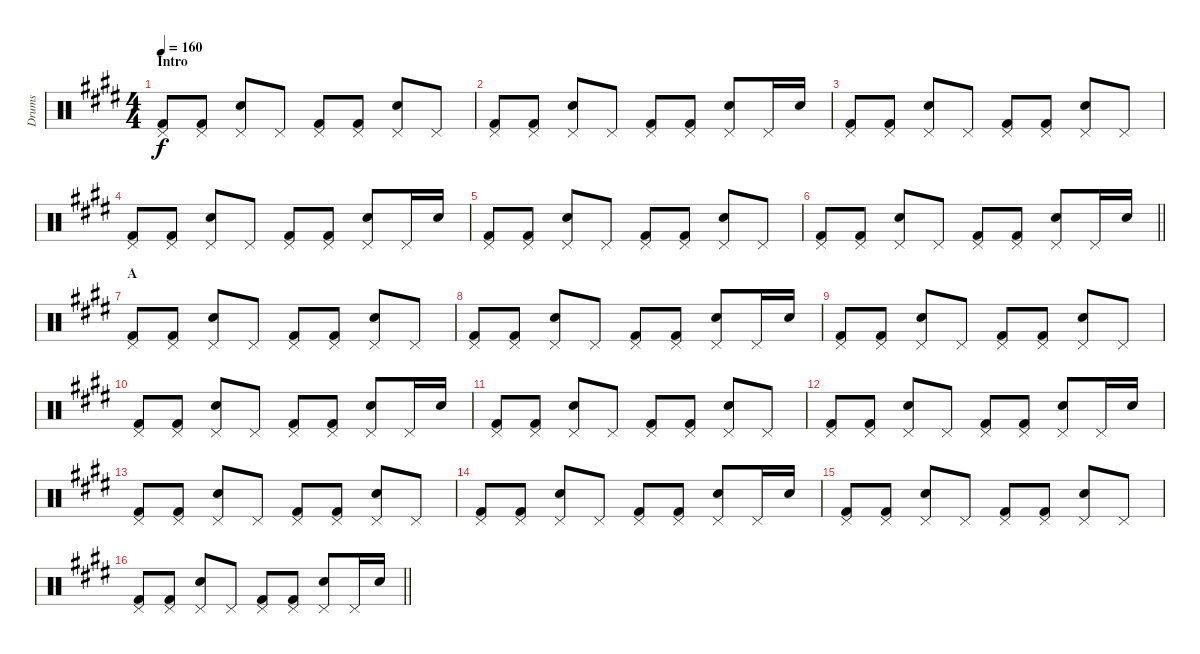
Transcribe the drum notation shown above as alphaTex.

\track ("Drums" "Drums") {instrument percussion}
\staff {score}
\articulation defaults
\ts (4 4)
\section ("" "Intro")
\tempo 160
\clef neutral
\ks e
("Pedal Hi-Hat (hit)" "Kick (hit) 2").8{dy f} ("Pedal Hi-Hat (hit)" "Kick (hit) 2").8 ("Pedal Hi-Hat (hit)" "Snare (hit) 2").8 "Pedal Hi-Hat (hit)".8 ("Pedal Hi-Hat (hit)" "Kick (hit) 2").8 ("Pedal Hi-Hat (hit)" "Kick (hit) 2").8 ("Pedal Hi-Hat (hit)" "Snare (hit) 2").8 "Pedal Hi-Hat (hit)".8 |
("Pedal Hi-Hat (hit)" "Kick (hit) 2").8 ("Pedal Hi-Hat (hit)" "Kick (hit) 2").8 ("Pedal Hi-Hat (hit)" "Snare (hit) 2").8 "Pedal Hi-Hat (hit)".8 ("Pedal Hi-Hat (hit)" "Kick (hit) 2").8 ("Pedal Hi-Hat (hit)" "Kick (hit) 2").8 ("Pedal Hi-Hat (hit)" "Snare (hit) 2").8 "Pedal Hi-Hat (hit)".16 "Snare (hit) 2".16 |
("Pedal Hi-Hat (hit)" "Kick (hit) 2").8 ("Pedal Hi-Hat (hit)" "Kick (hit) 2").8 ("Pedal Hi-Hat (hit)" "Snare (hit) 2").8 "Pedal Hi-Hat (hit)".8 ("Pedal Hi-Hat (hit)" "Kick (hit) 2").8 ("Pedal Hi-Hat (hit)" "Kick (hit) 2").8 ("Pedal Hi-Hat (hit)" "Snare (hit) 2").8 "Pedal Hi-Hat (hit)".8 |
("Pedal Hi-Hat (hit)" "Kick (hit) 2").8 ("Pedal Hi-Hat (hit)" "Kick (hit) 2").8 ("Pedal Hi-Hat (hit)" "Snare (hit) 2").8 "Pedal Hi-Hat (hit)".8 ("Pedal Hi-Hat (hit)" "Kick (hit) 2").8 ("Pedal Hi-Hat (hit)" "Kick (hit) 2").8 ("Pedal Hi-Hat (hit)" "Snare (hit) 2").8 "Pedal Hi-Hat (hit)".16 "Snare (hit) 2".16 |
("Pedal Hi-Hat (hit)" "Kick (hit) 2").8 ("Pedal Hi-Hat (hit)" "Kick (hit) 2").8 ("Pedal Hi-Hat (hit)" "Snare (hit) 2").8 "Pedal Hi-Hat (hit)".8 ("Pedal Hi-Hat (hit)" "Kick (hit) 2").8 ("Pedal Hi-Hat (hit)" "Kick (hit) 2").8 ("Pedal Hi-Hat (hit)" "Snare (hit) 2").8 "Pedal Hi-Hat (hit)".8 |
\barLineRight lightlight
("Pedal Hi-Hat (hit)" "Kick (hit) 2").8 ("Pedal Hi-Hat (hit)" "Kick (hit) 2").8 ("Pedal Hi-Hat (hit)" "Snare (hit) 2").8 "Pedal Hi-Hat (hit)".8 ("Pedal Hi-Hat (hit)" "Kick (hit) 2").8 ("Pedal Hi-Hat (hit)" "Kick (hit) 2").8 ("Pedal Hi-Hat (hit)" "Snare (hit) 2").8 "Pedal Hi-Hat (hit)".16 "Snare (hit) 2".16 |
\section ("" "A")
("Pedal Hi-Hat (hit)" "Kick (hit) 2").8 ("Pedal Hi-Hat (hit)" "Kick (hit) 2").8 ("Pedal Hi-Hat (hit)" "Snare (hit) 2").8 "Pedal Hi-Hat (hit)".8 ("Pedal Hi-Hat (hit)" "Kick (hit) 2").8 ("Pedal Hi-Hat (hit)" "Kick (hit) 2").8 ("Pedal Hi-Hat (hit)" "Snare (hit) 2").8 "Pedal Hi-Hat (hit)".8 |
("Pedal Hi-Hat (hit)" "Kick (hit) 2").8 ("Pedal Hi-Hat (hit)" "Kick (hit) 2").8 ("Pedal Hi-Hat (hit)" "Snare (hit) 2").8 "Pedal Hi-Hat (hit)".8 ("Pedal Hi-Hat (hit)" "Kick (hit) 2").8 ("Pedal Hi-Hat (hit)" "Kick (hit) 2").8 ("Pedal Hi-Hat (hit)" "Snare (hit) 2").8 "Pedal Hi-Hat (hit)".16 "Snare (hit) 2".16 |
("Pedal Hi-Hat (hit)" "Kick (hit) 2").8 ("Pedal Hi-Hat (hit)" "Kick (hit) 2").8 ("Pedal Hi-Hat (hit)" "Snare (hit) 2").8 "Pedal Hi-Hat (hit)".8 ("Pedal Hi-Hat (hit)" "Kick (hit) 2").8 ("Pedal Hi-Hat (hit)" "Kick (hit) 2").8 ("Pedal Hi-Hat (hit)" "Snare (hit) 2").8 "Pedal Hi-Hat (hit)".8 |
("Pedal Hi-Hat (hit)" "Kick (hit) 2").8 ("Pedal Hi-Hat (hit)" "Kick (hit) 2").8 ("Pedal Hi-Hat (hit)" "Snare (hit) 2").8 "Pedal Hi-Hat (hit)".8 ("Pedal Hi-Hat (hit)" "Kick (hit) 2").8 ("Pedal Hi-Hat (hit)" "Kick (hit) 2").8 ("Pedal Hi-Hat (hit)" "Snare (hit) 2").8 "Pedal Hi-Hat (hit)".16 "Snare (hit) 2".16 |
("Pedal Hi-Hat (hit)" "Kick (hit) 2").8 ("Pedal Hi-Hat (hit)" "Kick (hit) 2").8 ("Pedal Hi-Hat (hit)" "Snare (hit) 2").8 "Pedal Hi-Hat (hit)".8 ("Pedal Hi-Hat (hit)" "Kick (hit) 2").8 ("Pedal Hi-Hat (hit)" "Kick (hit) 2").8 ("Pedal Hi-Hat (hit)" "Snare (hit) 2").8 "Pedal Hi-Hat (hit)".8 |
("Pedal Hi-Hat (hit)" "Kick (hit) 2").8 ("Pedal Hi-Hat (hit)" "Kick (hit) 2").8 ("Pedal Hi-Hat (hit)" "Snare (hit) 2").8 "Pedal Hi-Hat (hit)".8 ("Pedal Hi-Hat (hit)" "Kick (hit) 2").8 ("Pedal Hi-Hat (hit)" "Kick (hit) 2").8 ("Pedal Hi-Hat (hit)" "Snare (hit) 2").8 "Pedal Hi-Hat (hit)".16 "Snare (hit) 2".16 |
("Pedal Hi-Hat (hit)" "Kick (hit) 2").8 ("Pedal Hi-Hat (hit)" "Kick (hit) 2").8 ("Pedal Hi-Hat (hit)" "Snare (hit) 2").8 "Pedal Hi-Hat (hit)".8 ("Pedal Hi-Hat (hit)" "Kick (hit) 2").8 ("Pedal Hi-Hat (hit)" "Kick (hit) 2").8 ("Pedal Hi-Hat (hit)" "Snare (hit) 2").8 "Pedal Hi-Hat (hit)".8 |
("Pedal Hi-Hat (hit)" "Kick (hit) 2").8 ("Pedal Hi-Hat (hit)" "Kick (hit) 2").8 ("Pedal Hi-Hat (hit)" "Snare (hit) 2").8 "Pedal Hi-Hat (hit)".8 ("Pedal Hi-Hat (hit)" "Kick (hit) 2").8 ("Pedal Hi-Hat (hit)" "Kick (hit) 2").8 ("Pedal Hi-Hat (hit)" "Snare (hit) 2").8 "Pedal Hi-Hat (hit)".16 "Snare (hit) 2".16 |
("Pedal Hi-Hat (hit)" "Kick (hit) 2").8 ("Pedal Hi-Hat (hit)" "Kick (hit) 2").8 ("Pedal Hi-Hat (hit)" "Snare (hit) 2").8 "Pedal Hi-Hat (hit)".8 ("Pedal Hi-Hat (hit)" "Kick (hit) 2").8 ("Pedal Hi-Hat (hit)" "Kick (hit) 2").8 ("Pedal Hi-Hat (hit)" "Snare (hit) 2").8 "Pedal Hi-Hat (hit)".8 |
\barLineRight lightlight
("Pedal Hi-Hat (hit)" "Kick (hit) 2").8 ("Pedal Hi-Hat (hit)" "Kick (hit) 2").8 ("Pedal Hi-Hat (hit)" "Snare (hit) 2").8 "Pedal Hi-Hat (hit)".8 ("Pedal Hi-Hat (hit)" "Kick (hit) 2").8 ("Pedal Hi-Hat (hit)" "Kick (hit) 2").8 ("Pedal Hi-Hat (hit)" "Snare (hit) 2").8 "Pedal Hi-Hat (hit)".16 "Snare (hit) 2".16
